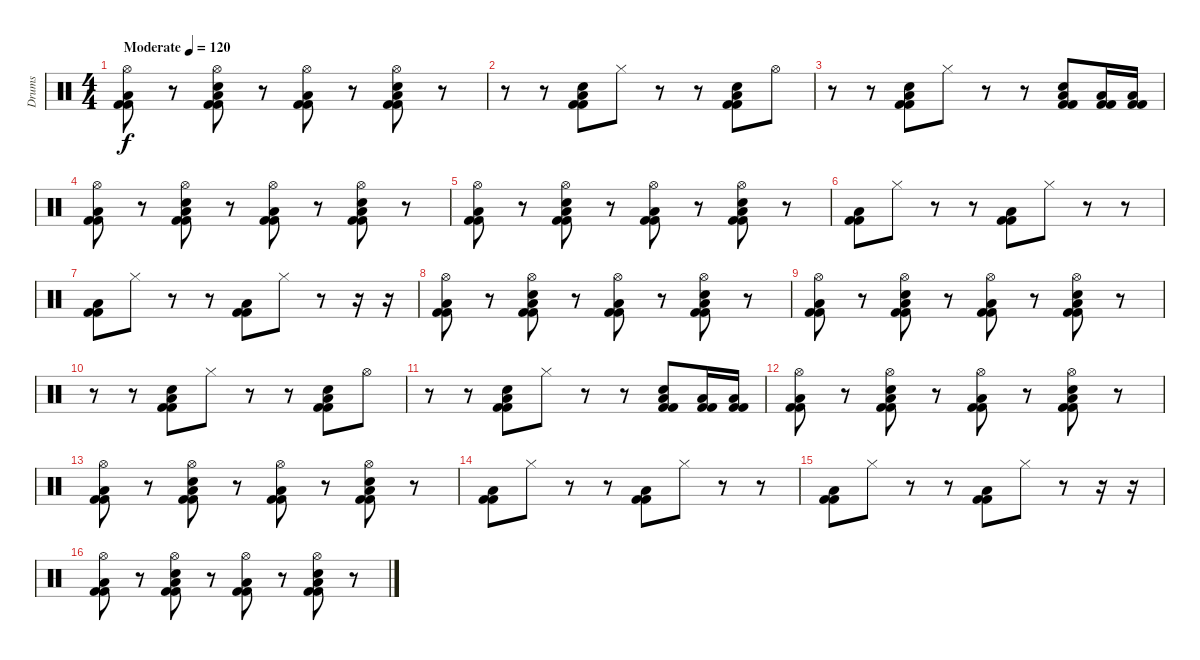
\track ("Drums" "Drums") {instrument percussion}
\staff {score}
\articulation defaults
\ts (4 4)
\tempo (120 "Moderate")
\clef neutral
\ks c
("Hi-Hat (open)" "Kick (hit) 2" "Low Floor Tom (hit)" "Kick (hit) 2").8{dy f} r.8 ("Hi-Hat (open)" "Electric Snare (hit)" "Kick (hit) 2" "Low Floor Tom (hit)" "Kick (hit) 2").8 r.8 ("Hi-Hat (open)" "Kick (hit) 2" "Low Floor Tom (hit)" "Kick (hit) 2").8 r.8 ("Hi-Hat (open)" "Electric Snare (hit)" "Kick (hit) 2" "Low Floor Tom (hit)" "Kick (hit) 2").8 r.8 |
r.8 r.8 ("Electric Snare (hit)" "Kick (hit) 2" "Low Floor Tom (hit)" "Kick (hit) 2").8 "Hi-Hat (closed)".8 r.8 r.8 ("Electric Snare (hit)" "Kick (hit) 2" "Low Floor Tom (hit)" "Kick (hit) 2").8 "Hi-Hat (open)".8 |
r.8 r.8 ("Electric Snare (hit)" "Kick (hit) 2" "Low Floor Tom (hit)" "Kick (hit) 2").8 "Hi-Hat (closed)".8 r.8 r.8 ("Electric Snare (hit)" "Kick (hit) 2" "Low Floor Tom (hit)" "Kick (hit) 2").8 ("Kick (hit) 2" "Low Floor Tom (hit)" "Kick (hit) 2").16 ("Kick (hit) 2" "Low Floor Tom (hit)" "Kick (hit) 2").16 |
("Hi-Hat (open)" "Kick (hit) 2" "Low Floor Tom (hit)" "Kick (hit) 2").8 r.8 ("Hi-Hat (open)" "Electric Snare (hit)" "Kick (hit) 2" "Low Floor Tom (hit)" "Kick (hit) 2").8 r.8 ("Hi-Hat (open)" "Kick (hit) 2" "Low Floor Tom (hit)" "Kick (hit) 2").8 r.8 ("Hi-Hat (open)" "Electric Snare (hit)" "Kick (hit) 2" "Low Floor Tom (hit)" "Kick (hit) 2").8 r.8 |
("Hi-Hat (open)" "Kick (hit) 2" "Low Floor Tom (hit)" "Kick (hit) 2").8 r.8 ("Hi-Hat (open)" "Electric Snare (hit)" "Kick (hit) 2" "Low Floor Tom (hit)" "Kick (hit) 2").8 r.8 ("Hi-Hat (open)" "Kick (hit) 2" "Low Floor Tom (hit)" "Kick (hit) 2").8 r.8 ("Hi-Hat (open)" "Electric Snare (hit)" "Kick (hit) 2" "Low Floor Tom (hit)" "Kick (hit) 2").8 r.8 |
("Kick (hit) 2" "Low Floor Tom (hit)" "Kick (hit) 2").8 "Hi-Hat (closed)".8 r.8 r.8 ("Kick (hit) 2" "Low Floor Tom (hit)" "Kick (hit) 2").8 "Hi-Hat (closed)".8 r.8 r.8 |
("Kick (hit) 2" "Low Floor Tom (hit)" "Kick (hit) 2").8 "Hi-Hat (closed)".8 r.8 r.8 ("Kick (hit) 2" "Low Floor Tom (hit)" "Kick (hit) 2").8 "Hi-Hat (closed)".8 r.8 r.16 r.16 |
("Hi-Hat (open)" "Kick (hit) 2" "Low Floor Tom (hit)" "Kick (hit) 2").8 r.8 ("Hi-Hat (open)" "Electric Snare (hit)" "Kick (hit) 2" "Low Floor Tom (hit)" "Kick (hit) 2").8 r.8 ("Hi-Hat (open)" "Kick (hit) 2" "Low Floor Tom (hit)" "Kick (hit) 2").8 r.8 ("Hi-Hat (open)" "Electric Snare (hit)" "Kick (hit) 2" "Low Floor Tom (hit)" "Kick (hit) 2").8 r.8 |
("Hi-Hat (open)" "Kick (hit) 2" "Low Floor Tom (hit)" "Kick (hit) 2").8 r.8 ("Hi-Hat (open)" "Electric Snare (hit)" "Kick (hit) 2" "Low Floor Tom (hit)" "Kick (hit) 2").8 r.8 ("Hi-Hat (open)" "Kick (hit) 2" "Low Floor Tom (hit)" "Kick (hit) 2").8 r.8 ("Hi-Hat (open)" "Electric Snare (hit)" "Kick (hit) 2" "Low Floor Tom (hit)" "Kick (hit) 2").8 r.8 |
r.8 r.8 ("Electric Snare (hit)" "Kick (hit) 2" "Low Floor Tom (hit)" "Kick (hit) 2").8 "Hi-Hat (closed)".8 r.8 r.8 ("Electric Snare (hit)" "Kick (hit) 2" "Low Floor Tom (hit)" "Kick (hit) 2").8 "Hi-Hat (open)".8 |
r.8 r.8 ("Electric Snare (hit)" "Kick (hit) 2" "Low Floor Tom (hit)" "Kick (hit) 2").8 "Hi-Hat (closed)".8 r.8 r.8 ("Electric Snare (hit)" "Kick (hit) 2" "Low Floor Tom (hit)" "Kick (hit) 2").8 ("Kick (hit) 2" "Low Floor Tom (hit)" "Kick (hit) 2").16 ("Kick (hit) 2" "Low Floor Tom (hit)" "Kick (hit) 2").16 |
("Hi-Hat (open)" "Kick (hit) 2" "Low Floor Tom (hit)" "Kick (hit) 2").8 r.8 ("Hi-Hat (open)" "Electric Snare (hit)" "Kick (hit) 2" "Low Floor Tom (hit)" "Kick (hit) 2").8 r.8 ("Hi-Hat (open)" "Kick (hit) 2" "Low Floor Tom (hit)" "Kick (hit) 2").8 r.8 ("Hi-Hat (open)" "Electric Snare (hit)" "Kick (hit) 2" "Low Floor Tom (hit)" "Kick (hit) 2").8 r.8 |
("Hi-Hat (open)" "Kick (hit) 2" "Low Floor Tom (hit)" "Kick (hit) 2").8 r.8 ("Hi-Hat (open)" "Electric Snare (hit)" "Kick (hit) 2" "Low Floor Tom (hit)" "Kick (hit) 2").8 r.8 ("Hi-Hat (open)" "Kick (hit) 2" "Low Floor Tom (hit)" "Kick (hit) 2").8 r.8 ("Hi-Hat (open)" "Electric Snare (hit)" "Kick (hit) 2" "Low Floor Tom (hit)" "Kick (hit) 2").8 r.8 |
("Kick (hit) 2" "Low Floor Tom (hit)" "Kick (hit) 2").8 "Hi-Hat (closed)".8 r.8 r.8 ("Kick (hit) 2" "Low Floor Tom (hit)" "Kick (hit) 2").8 "Hi-Hat (closed)".8 r.8 r.8 |
("Kick (hit) 2" "Low Floor Tom (hit)" "Kick (hit) 2").8 "Hi-Hat (closed)".8 r.8 r.8 ("Kick (hit) 2" "Low Floor Tom (hit)" "Kick (hit) 2").8 "Hi-Hat (closed)".8 r.8 r.16 r.16 |
("Hi-Hat (open)" "Kick (hit) 2" "Low Floor Tom (hit)" "Kick (hit) 2").8 r.8 ("Hi-Hat (open)" "Electric Snare (hit)" "Kick (hit) 2" "Low Floor Tom (hit)" "Kick (hit) 2").8 r.8 ("Hi-Hat (open)" "Kick (hit) 2" "Low Floor Tom (hit)" "Kick (hit) 2").8 r.8 ("Hi-Hat (open)" "Electric Snare (hit)" "Kick (hit) 2" "Low Floor Tom (hit)" "Kick (hit) 2").8 r.8
